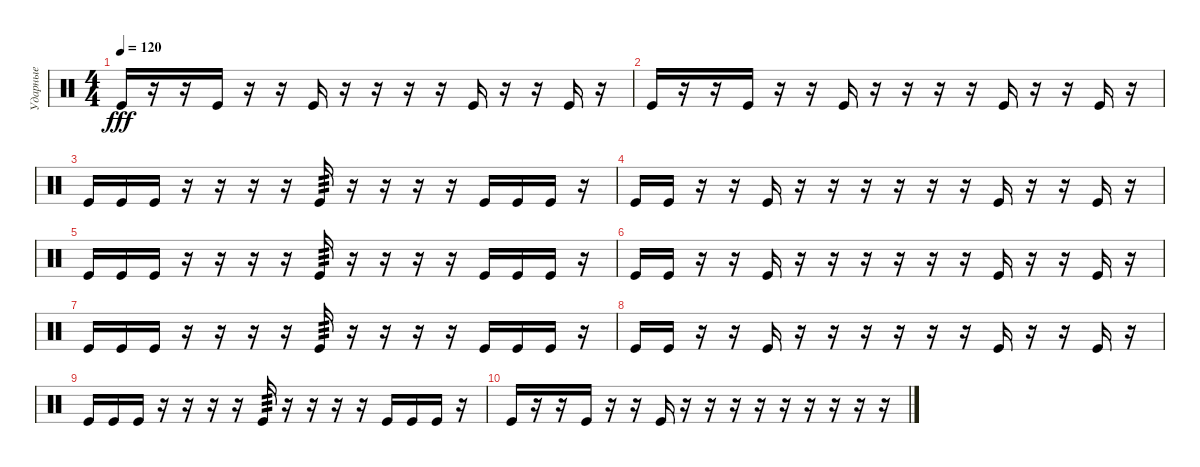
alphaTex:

\track ("Ударные" "Ударные") {instrument percussion}
\staff {score}
\articulation defaults
\ts (4 4)
\tempo 120
\clef neutral
\ks c "Kick (hit)".16{dy fff}
r.16 r.16 "Kick (hit)".16 r.16 r.16 "Kick (hit)".16 r.16 r.16 r.16 r.16 "Kick (hit)".16 r.16 r.16 "Kick (hit)".16 r.16 |
"Kick (hit)".16 r.16 r.16 "Kick (hit)".16 r.16 r.16 "Kick (hit)".16 r.16 r.16 r.16 r.16 "Kick (hit)".16 r.16 r.16 "Kick (hit)".16 r.16 |
"Kick (hit)".16 "Kick (hit)".16 "Kick (hit)".16 r.16 r.16 r.16 r.16 "Kick (hit)".16{tp 3} r.16 r.16 r.16 r.16 "Kick (hit)".16 "Kick (hit)".16 "Kick (hit)".16 r.16 |
"Kick (hit)".16 "Kick (hit)".16 r.16 r.16 "Kick (hit)".16 r.16 r.16 r.16 r.16 r.16 r.16 "Kick (hit)".16 r.16 r.16 "Kick (hit)".16 r.16 |
"Kick (hit)".16 "Kick (hit)".16 "Kick (hit)".16 r.16 r.16 r.16 r.16 "Kick (hit)".16{tp 3} r.16 r.16 r.16 r.16 "Kick (hit)".16 "Kick (hit)".16 "Kick (hit)".16 r.16 |
"Kick (hit)".16 "Kick (hit)".16 r.16 r.16 "Kick (hit)".16 r.16 r.16 r.16 r.16 r.16 r.16 "Kick (hit)".16 r.16 r.16 "Kick (hit)".16 r.16 |
"Kick (hit)".16 "Kick (hit)".16 "Kick (hit)".16 r.16 r.16 r.16 r.16 "Kick (hit)".16{tp 3} r.16 r.16 r.16 r.16 "Kick (hit)".16 "Kick (hit)".16 "Kick (hit)".16 r.16 |
"Kick (hit)".16 "Kick (hit)".16 r.16 r.16 "Kick (hit)".16 r.16 r.16 r.16 r.16 r.16 r.16 "Kick (hit)".16 r.16 r.16 "Kick (hit)".16 r.16 |
"Kick (hit)".16 "Kick (hit)".16 "Kick (hit)".16 r.16 r.16 r.16 r.16 "Kick (hit)".16{tp 3} r.16 r.16 r.16 r.16 "Kick (hit)".16 "Kick (hit)".16 "Kick (hit)".16 r.16 |
"Kick (hit)".16 r.16 r.16 "Kick (hit)".16 r.16 r.16 "Kick (hit)".16 r.16 r.16 r.16 r.16 r.16 r.16 r.16 r.16 r.16
